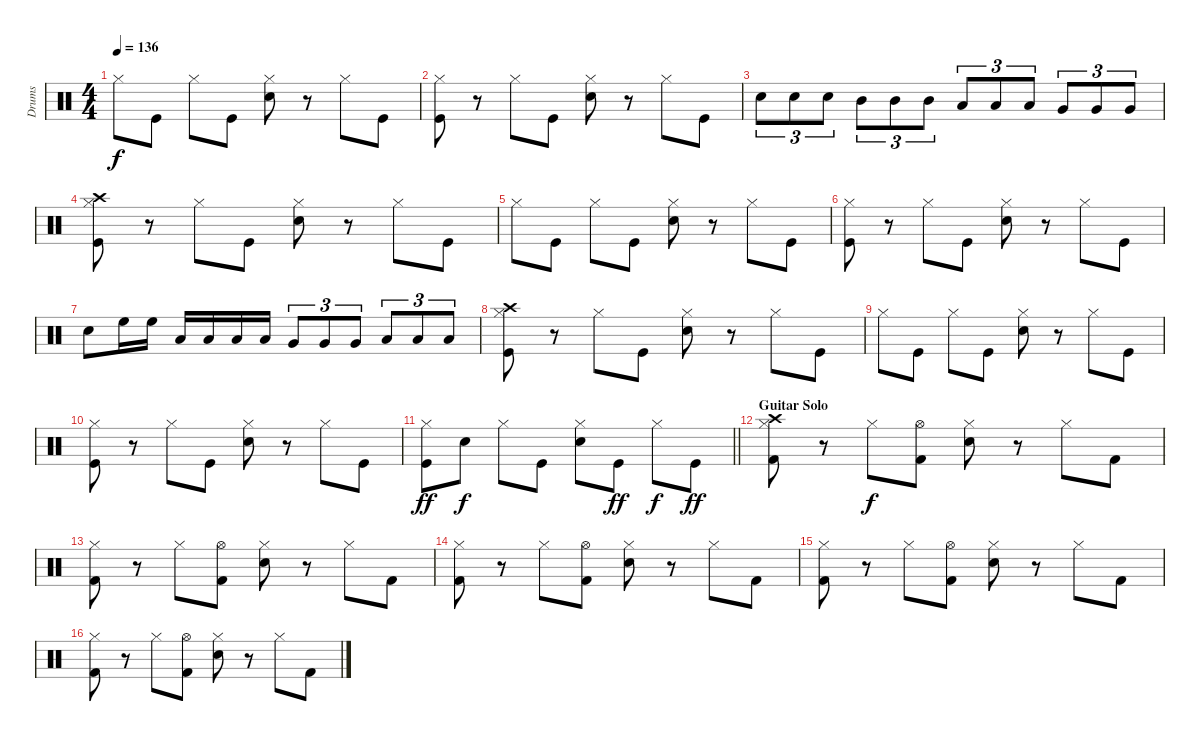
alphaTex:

\track ("Drums" "Drums") {instrument percussion}
\staff {score}
\articulation defaults
\ts (4 4)
\tempo 136
\clef neutral
\ks c "Hi-Hat (closed)".8{dy f} "Kick (hit)".8 "Hi-Hat (closed)".8 "Kick (hit)".8
("Snare (hit) 2" "Hi-Hat (closed)").8 r.8 "Hi-Hat (closed)".8 "Kick (hit)".8 |
("Kick (hit)" "Hi-Hat (closed)").8 r.8 "Hi-Hat (closed)".8 "Kick (hit)".8 ("Snare (hit) 2" "Hi-Hat (closed)").8 r.8 "Hi-Hat (closed)".8 "Kick (hit)".8 |
"Snare (hit) 2".8{tu (3 2)} "Snare (hit) 2".8{tu (3 2)} "Snare (hit) 2".8{tu (3 2)} "Mid Tom (hit)".8{tu (3 2)} "Mid Tom (hit)".8{tu (3 2)} "Mid Tom (hit)".8{tu (3 2)} "Low Tom (hit)".8{tu (3 2)} "Low Tom (hit)".8{tu (3 2)} "Low Tom (hit)".8{tu (3 2)} "Very Low Tom (hit)".8{tu (3 2)} "Very Low Tom (hit)".8{tu (3 2)} "Very Low Tom (hit)".8{tu (3 2)} |
("Crash high (hit)" "Kick (hit)" "Hi-Hat (closed)").8 r.8 "Hi-Hat (closed)".8 "Kick (hit)".8 ("Snare (hit) 2" "Hi-Hat (closed)").8 r.8 "Hi-Hat (closed)".8 "Kick (hit)".8 |
"Hi-Hat (closed)".8 "Kick (hit)".8 "Hi-Hat (closed)".8 "Kick (hit)".8 ("Snare (hit) 2" "Hi-Hat (closed)").8 r.8 "Hi-Hat (closed)".8 "Kick (hit)".8 |
("Kick (hit)" "Hi-Hat (closed)").8 r.8 "Hi-Hat (closed)".8 "Kick (hit)".8 ("Snare (hit) 2" "Hi-Hat (closed)").8 r.8 "Hi-Hat (closed)".8 "Kick (hit)".8 |
"Snare (hit) 2".8 "High Floor Tom (hit)".16 "High Floor Tom (hit)".16 "Low Tom (hit)".16 "Low Tom (hit)".16 "Low Tom (hit)".16 "Low Tom (hit)".16 "Very Low Tom (hit)".8{tu (3 2)} "Very Low Tom (hit)".8{tu (3 2)} "Very Low Tom (hit)".8{tu (3 2)} "Low Floor Tom (hit)".8{tu (3 2)} "Low Floor Tom (hit)".8{tu (3 2)} "Low Floor Tom (hit)".8{tu (3 2)} |
("Crash high (hit)" "Kick (hit)" "Hi-Hat (closed)").8 r.8 "Hi-Hat (closed)".8 "Kick (hit)".8 ("Snare (hit) 2" "Hi-Hat (closed)").8 r.8 "Hi-Hat (closed)".8 "Kick (hit)".8 |
"Hi-Hat (closed)".8 "Kick (hit)".8 "Hi-Hat (closed)".8 "Kick (hit)".8 ("Snare (hit) 2" "Hi-Hat (closed)").8 r.8 "Hi-Hat (closed)".8 "Kick (hit)".8 |
("Kick (hit)" "Hi-Hat (closed)").8 r.8 "Hi-Hat (closed)".8 "Kick (hit)".8 ("Snare (hit) 2" "Hi-Hat (closed)").8 r.8 "Hi-Hat (closed)".8 "Kick (hit)".8 |
\barLineRight lightlight
("Kick (hit)" "Hi-Hat (closed)").8{dy ff} "Snare (hit) 2".8{dy f} "Hi-Hat (closed)".8 "Kick (hit)".8 ("Snare (hit) 2" "Hi-Hat (closed)").8 "Kick (hit)".8{dy ff} "Hi-Hat (closed)".8{dy f} "Kick (hit)".8{dy ff} |
\section ("" "Guitar Solo")
("Kick (hit) 2" "Crash high (hit)" "Hi-Hat (closed)").8 r.8 "Hi-Hat (closed)".8{dy f} ("Kick (hit) 2" "Hi-Hat (open)").8 ("Snare (hit) 2" "Hi-Hat (closed)").8 r.8 "Hi-Hat (closed)".8 "Kick (hit) 2".8 |
("Kick (hit) 2" "Hi-Hat (closed)").8 r.8 "Hi-Hat (closed)".8 ("Kick (hit) 2" "Hi-Hat (open)").8 ("Snare (hit) 2" "Hi-Hat (closed)").8 r.8 "Hi-Hat (closed)".8 "Kick (hit) 2".8 |
("Kick (hit) 2" "Hi-Hat (closed)").8 r.8 "Hi-Hat (closed)".8 ("Kick (hit) 2" "Hi-Hat (open)").8 ("Snare (hit) 2" "Hi-Hat (closed)").8 r.8 "Hi-Hat (closed)".8 "Kick (hit) 2".8 |
("Kick (hit) 2" "Hi-Hat (closed)").8 r.8 "Hi-Hat (closed)".8 ("Kick (hit) 2" "Hi-Hat (open)").8 ("Snare (hit) 2" "Hi-Hat (closed)").8 r.8 "Hi-Hat (closed)".8 "Kick (hit) 2".8 |
("Kick (hit) 2" "Hi-Hat (closed)").8 r.8 "Hi-Hat (closed)".8 ("Kick (hit) 2" "Hi-Hat (open)").8 ("Snare (hit) 2" "Hi-Hat (closed)").8 r.8 "Hi-Hat (closed)".8 "Kick (hit) 2".8
